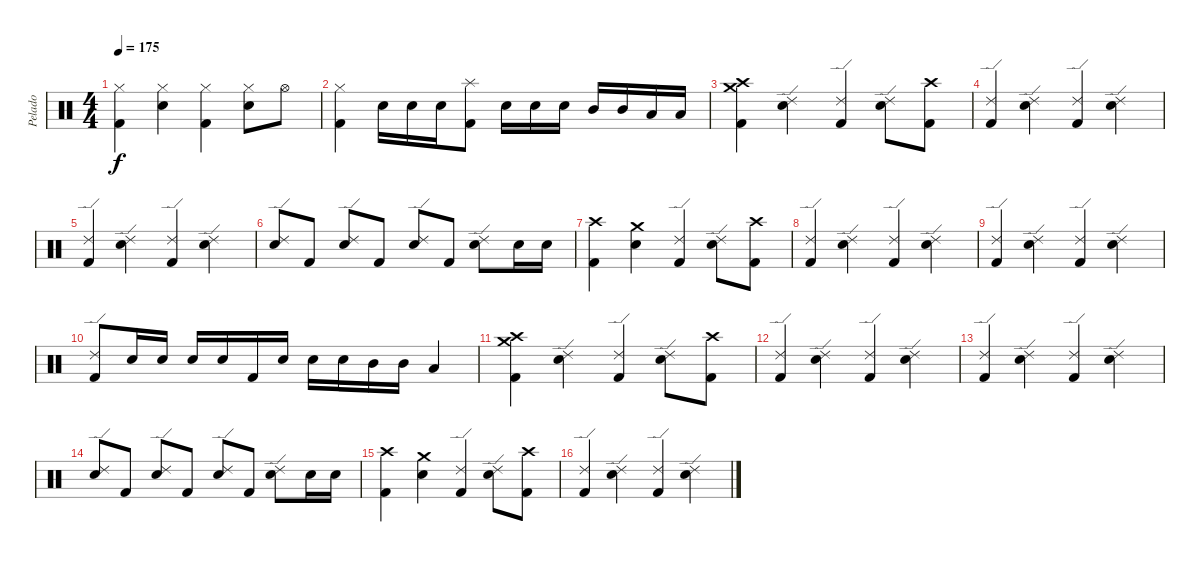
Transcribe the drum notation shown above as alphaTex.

\track ("Pelado" "Pelado") {instrument percussion}
\staff {score}
\articulation defaults
\ts (4 4)
\tempo 175
\clef neutral
\ks c
("Hi-Hat (closed)" "Kick (hit) 2").4{dy f} ("Hi-Hat (closed)" "Electric Snare (hit)").4 ("Hi-Hat (closed)" "Kick (hit) 2").4 ("Hi-Hat (closed)" "Electric Snare (hit)").8 "Hi-Hat (open)".8 |
("Hi-Hat (closed)" "Kick (hit) 2").4 "Electric Snare (hit)".16 "Electric Snare (hit)".16 "Electric Snare (hit)".16 ("Splash (hit)" "Kick (hit) 2").8 "Electric Snare (hit)".16 "Electric Snare (hit)".16 "Electric Snare (hit)".16 "Mid Tom (hit)".16 "Mid Tom (hit)".16 "Low Tom (hit)".16 "Low Tom (hit)".16 |
("Crash medium (hit)" "Crash high (hit)" "Kick (hit) 2").4 ("Ride (edge) 2" "Electric Snare (hit)").4 ("Ride (edge) 2" "Kick (hit) 2").4 ("Ride (edge) 2" "Electric Snare (hit)").8 ("Crash high (hit)" "Kick (hit) 2").8 |
("Ride (edge) 2" "Kick (hit) 2").4 ("Ride (edge) 2" "Electric Snare (hit)").4 ("Ride (edge) 2" "Kick (hit) 2").4 ("Ride (edge) 2" "Electric Snare (hit)").4 |
("Ride (edge) 2" "Kick (hit) 2").4 ("Ride (edge) 2" "Electric Snare (hit)").4 ("Ride (edge) 2" "Kick (hit) 2").4 ("Ride (edge) 2" "Electric Snare (hit)").4 |
("Ride (edge) 2" "Electric Snare (hit)").8 "Kick (hit) 2".8 ("Ride (edge) 2" "Electric Snare (hit)").8 "Kick (hit) 2".8 ("Ride (edge) 2" "Electric Snare (hit)").8 "Kick (hit) 2".8 ("Ride (edge) 2" "Electric Snare (hit)").8 "Electric Snare (hit)".16 "Electric Snare (hit)".16 |
("Crash high (hit)" "Kick (hit) 2").4 ("Crash medium (hit)" "Electric Snare (hit)").4 ("Ride (edge) 2" "Kick (hit) 2").4 ("Ride (edge) 2" "Electric Snare (hit)").8 ("Crash high (hit)" "Kick (hit) 2").8 |
("Ride (edge) 2" "Kick (hit) 2").4 ("Ride (edge) 2" "Electric Snare (hit)").4 ("Ride (edge) 2" "Kick (hit) 2").4 ("Ride (edge) 2" "Electric Snare (hit)").4 |
("Ride (edge) 2" "Kick (hit) 2").4 ("Ride (edge) 2" "Electric Snare (hit)").4 ("Ride (edge) 2" "Kick (hit) 2").4 ("Ride (edge) 2" "Electric Snare (hit)").4 |
("Ride (edge) 2" "Kick (hit) 2").8 "Electric Snare (hit)".16 "Electric Snare (hit)".16 "Electric Snare (hit)".16 "Electric Snare (hit)".16 "Kick (hit) 2".16 "Electric Snare (hit)".16 "Electric Snare (hit)".16 "Electric Snare (hit)".16 "Mid Tom (hit)".16 "Mid Tom (hit)".16 "Low Tom (hit)".4 |
("Crash medium (hit)" "Crash high (hit)" "Kick (hit) 2").4 ("Ride (edge) 2" "Electric Snare (hit)").4 ("Ride (edge) 2" "Kick (hit) 2").4 ("Ride (edge) 2" "Electric Snare (hit)").8 ("Crash high (hit)" "Kick (hit) 2").8 |
("Ride (edge) 2" "Kick (hit) 2").4 ("Ride (edge) 2" "Electric Snare (hit)").4 ("Ride (edge) 2" "Kick (hit) 2").4 ("Ride (edge) 2" "Electric Snare (hit)").4 |
("Ride (edge) 2" "Kick (hit) 2").4 ("Ride (edge) 2" "Electric Snare (hit)").4 ("Ride (edge) 2" "Kick (hit) 2").4 ("Ride (edge) 2" "Electric Snare (hit)").4 |
("Ride (edge) 2" "Electric Snare (hit)").8 "Kick (hit) 2".8 ("Ride (edge) 2" "Electric Snare (hit)").8 "Kick (hit) 2".8 ("Ride (edge) 2" "Electric Snare (hit)").8 "Kick (hit) 2".8 ("Ride (edge) 2" "Electric Snare (hit)").8 "Electric Snare (hit)".16 "Electric Snare (hit)".16 |
("Crash high (hit)" "Kick (hit) 2").4 ("Crash medium (hit)" "Electric Snare (hit)").4 ("Ride (edge) 2" "Kick (hit) 2").4 ("Ride (edge) 2" "Electric Snare (hit)").8 ("Crash high (hit)" "Kick (hit) 2").8 |
("Ride (edge) 2" "Kick (hit) 2").4 ("Ride (edge) 2" "Electric Snare (hit)").4 ("Ride (edge) 2" "Kick (hit) 2").4 ("Ride (edge) 2" "Electric Snare (hit)").4
